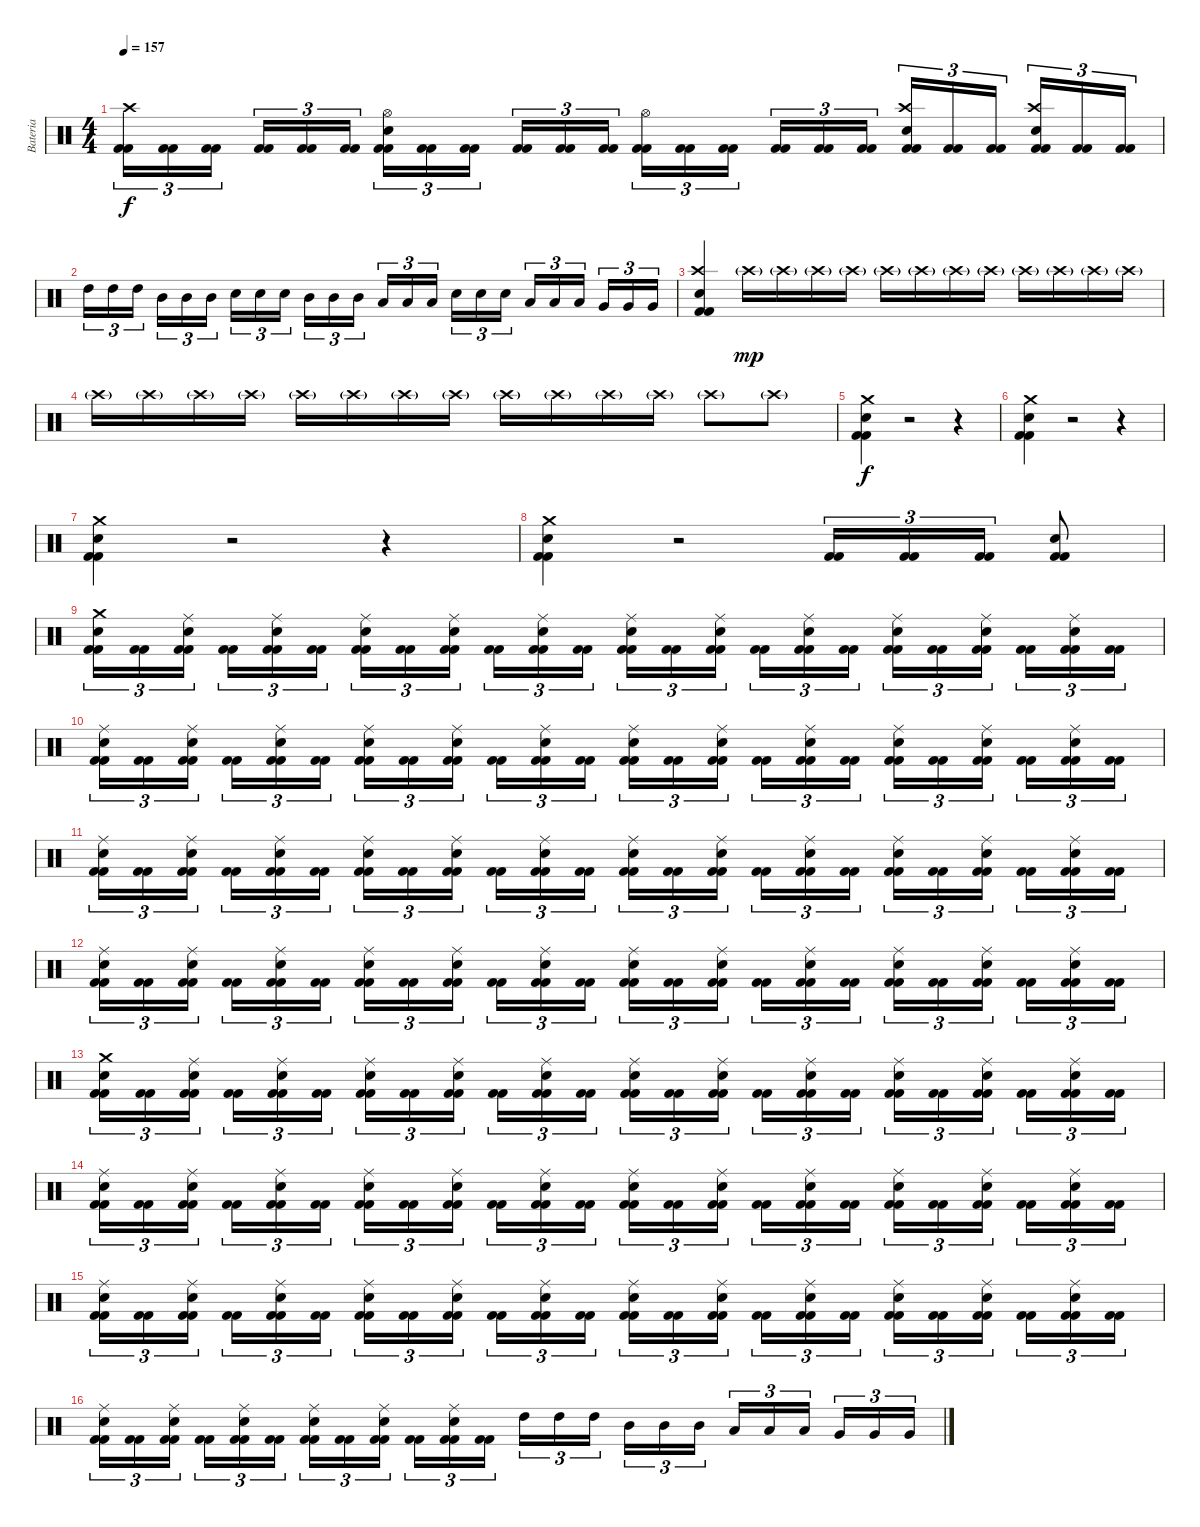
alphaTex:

\track ("Bateria" "Bateria") {instrument percussion}
\staff {score}
\articulation defaults
\ts (4 4)
\tempo 157
\clef neutral
\ks c
("Kick (hit) 2" "Kick (hit) 2" "Crash high (hit)").16{tu (3 2) dy f} ("Kick (hit) 2" "Kick (hit) 2").16{tu (3 2)} ("Kick (hit) 2" "Kick (hit) 2").16{tu (3 2)} ("Kick (hit) 2" "Kick (hit) 2").16{tu (3 2)} ("Kick (hit) 2" "Kick (hit) 2").16{tu (3 2)} ("Kick (hit) 2" "Kick (hit) 2").16{tu (3 2)} ("Kick (hit) 2" "Kick (hit) 2" "Snare (hit) 2" "Hi-Hat (open)").16{tu (3 2)} ("Kick (hit) 2" "Kick (hit) 2").16{tu (3 2)} ("Kick (hit) 2" "Kick (hit) 2").16{tu (3 2)} ("Kick (hit) 2" "Kick (hit) 2").16{tu (3 2)} ("Kick (hit) 2" "Kick (hit) 2").16{tu (3 2)} ("Kick (hit) 2" "Kick (hit) 2").16{tu (3 2)} ("Kick (hit) 2" "Kick (hit) 2" "Hi-Hat (open)").16{tu (3 2)} ("Kick (hit) 2" "Kick (hit) 2").16{tu (3 2)} ("Kick (hit) 2" "Kick (hit) 2").16{tu (3 2)} ("Kick (hit) 2" "Kick (hit) 2").16{tu (3 2)} ("Kick (hit) 2" "Kick (hit) 2").16{tu (3 2)} ("Kick (hit) 2" "Kick (hit) 2").16{tu (3 2)} ("Kick (hit) 2" "Kick (hit) 2" "Snare (hit) 2" "Crash high (hit)").16{tu (3 2)} ("Kick (hit) 2" "Kick (hit) 2").16{tu (3 2)} ("Kick (hit) 2" "Kick (hit) 2").16{tu (3 2)} ("Kick (hit) 2" "Kick (hit) 2" "Snare (hit) 2" "Crash high (hit)").16{tu (3 2)} ("Kick (hit) 2" "Kick (hit) 2").16{tu (3 2)} ("Kick (hit) 2" "Kick (hit) 2").16{tu (3 2)} |
"High Tom (hit)".16{tu (3 2)} "High Tom (hit)".16{tu (3 2)} "High Tom (hit)".16{tu (3 2)} "Mid Tom (hit)".16{tu (3 2)} "Mid Tom (hit)".16{tu (3 2)} "Mid Tom (hit)".16{tu (3 2)} "Snare (hit) 2".16{tu (3 2)} "Snare (hit) 2".16{tu (3 2)} "Snare (hit) 2".16{tu (3 2)} "Mid Tom (hit)".16{tu (3 2)} "Mid Tom (hit)".16{tu (3 2)} "Mid Tom (hit)".16{tu (3 2)} "Low Tom (hit)".16{tu (3 2)} "Low Tom (hit)".16{tu (3 2)} "Low Tom (hit)".16{tu (3 2)} "Snare (hit) 2".16{tu (3 2)} "Snare (hit) 2".16{tu (3 2)} "Snare (hit) 2".16{tu (3 2)} "Low Tom (hit)".16{tu (3 2)} "Low Tom (hit)".16{tu (3 2)} "Low Tom (hit)".16{tu (3 2)} "Very Low Tom (hit)".16{tu (3 2)} "Very Low Tom (hit)".16{tu (3 2)} "Very Low Tom (hit)".16{tu (3 2)} |
("Kick (hit) 2" "Kick (hit) 2" "Snare (hit) 2" "Crash high (hit)").4 "Crash high (hit)"{g}.16{dy mp} "Crash high (hit)"{g}.16 "Crash high (hit)"{g}.16 "Crash high (hit)"{g}.16 "Crash high (hit)"{g}.16 "Crash high (hit)"{g}.16 "Crash high (hit)"{g}.16 "Crash high (hit)"{g}.16 "Crash high (hit)"{g}.16 "Crash high (hit)"{g}.16 "Crash high (hit)"{g}.16 "Crash high (hit)"{g}.16 |
"Crash high (hit)"{g}.16 "Crash high (hit)"{g}.16 "Crash high (hit)"{g}.16 "Crash high (hit)"{g}.16 "Crash high (hit)"{g}.16 "Crash high (hit)"{g}.16 "Crash high (hit)"{g}.16 "Crash high (hit)"{g}.16 "Crash high (hit)"{g}.16 "Crash high (hit)"{g}.16 "Crash high (hit)"{g}.16 "Crash high (hit)"{g}.16 "Crash high (hit)"{g}.8 "Crash high (hit)"{g}.8 |
("Kick (hit) 2" "Kick (hit) 2" "Snare (hit) 2" "Crash medium (hit)").4{dy f} r.2 r.4 |
("Kick (hit) 2" "Kick (hit) 2" "Snare (hit) 2" "Crash medium (hit)").4 r.2 r.4 |
("Kick (hit) 2" "Kick (hit) 2" "Snare (hit) 2" "Crash medium (hit)").4 r.2 r.4 |
("Kick (hit) 2" "Kick (hit) 2" "Snare (hit) 2" "Crash medium (hit)").4 r.2 ("Kick (hit) 2" "Kick (hit) 2").16{tu (3 2)} ("Kick (hit) 2" "Kick (hit) 2").16{tu (3 2)} ("Kick (hit) 2" "Kick (hit) 2").16{tu (3 2)} ("Kick (hit) 2" "Kick (hit) 2" "Snare (hit) 2").8 |
("Kick (hit) 2" "Kick (hit) 2" "Snare (hit) 2" "Crash medium (hit)").16{tu (3 2)} ("Kick (hit) 2" "Kick (hit) 2").16{tu (3 2)} ("Kick (hit) 2" "Kick (hit) 2" "Snare (hit) 2" "Ride (middle)").16{tu (3 2)} ("Kick (hit) 2" "Kick (hit) 2").16{tu (3 2)} ("Kick (hit) 2" "Kick (hit) 2" "Snare (hit) 2" "Ride (middle)").16{tu (3 2)} ("Kick (hit) 2" "Kick (hit) 2").16{tu (3 2)} ("Kick (hit) 2" "Kick (hit) 2" "Snare (hit) 2" "Ride (middle)").16{tu (3 2)} ("Kick (hit) 2" "Kick (hit) 2").16{tu (3 2)} ("Kick (hit) 2" "Kick (hit) 2" "Snare (hit) 2" "Ride (middle)").16{tu (3 2)} ("Kick (hit) 2" "Kick (hit) 2").16{tu (3 2)} ("Kick (hit) 2" "Kick (hit) 2" "Snare (hit) 2" "Ride (middle)").16{tu (3 2)} ("Kick (hit) 2" "Kick (hit) 2").16{tu (3 2)} ("Kick (hit) 2" "Kick (hit) 2" "Snare (hit) 2" "Ride (middle)").16{tu (3 2)} ("Kick (hit) 2" "Kick (hit) 2").16{tu (3 2)} ("Kick (hit) 2" "Kick (hit) 2" "Snare (hit) 2" "Ride (middle)").16{tu (3 2)} ("Kick (hit) 2" "Kick (hit) 2").16{tu (3 2)} ("Kick (hit) 2" "Kick (hit) 2" "Snare (hit) 2" "Ride (middle)").16{tu (3 2)} ("Kick (hit) 2" "Kick (hit) 2").16{tu (3 2)} ("Kick (hit) 2" "Kick (hit) 2" "Snare (hit) 2" "Ride (middle)").16{tu (3 2)} ("Kick (hit) 2" "Kick (hit) 2").16{tu (3 2)} ("Kick (hit) 2" "Kick (hit) 2" "Snare (hit) 2" "Ride (middle)").16{tu (3 2)} ("Kick (hit) 2" "Kick (hit) 2").16{tu (3 2)} ("Kick (hit) 2" "Kick (hit) 2" "Snare (hit) 2" "Ride (middle)").16{tu (3 2)} ("Kick (hit) 2" "Kick (hit) 2").16{tu (3 2)} |
("Kick (hit) 2" "Kick (hit) 2" "Snare (hit) 2" "Ride (middle)").16{tu (3 2)} ("Kick (hit) 2" "Kick (hit) 2").16{tu (3 2)} ("Kick (hit) 2" "Kick (hit) 2" "Snare (hit) 2" "Ride (middle)").16{tu (3 2)} ("Kick (hit) 2" "Kick (hit) 2").16{tu (3 2)} ("Kick (hit) 2" "Kick (hit) 2" "Snare (hit) 2" "Ride (middle)").16{tu (3 2)} ("Kick (hit) 2" "Kick (hit) 2").16{tu (3 2)} ("Kick (hit) 2" "Kick (hit) 2" "Snare (hit) 2" "Ride (middle)").16{tu (3 2)} ("Kick (hit) 2" "Kick (hit) 2").16{tu (3 2)} ("Kick (hit) 2" "Kick (hit) 2" "Snare (hit) 2" "Ride (middle)").16{tu (3 2)} ("Kick (hit) 2" "Kick (hit) 2").16{tu (3 2)} ("Kick (hit) 2" "Kick (hit) 2" "Snare (hit) 2" "Ride (middle)").16{tu (3 2)} ("Kick (hit) 2" "Kick (hit) 2").16{tu (3 2)} ("Kick (hit) 2" "Kick (hit) 2" "Snare (hit) 2" "Ride (middle)").16{tu (3 2)} ("Kick (hit) 2" "Kick (hit) 2").16{tu (3 2)} ("Kick (hit) 2" "Kick (hit) 2" "Snare (hit) 2" "Ride (middle)").16{tu (3 2)} ("Kick (hit) 2" "Kick (hit) 2").16{tu (3 2)} ("Kick (hit) 2" "Kick (hit) 2" "Snare (hit) 2" "Ride (middle)").16{tu (3 2)} ("Kick (hit) 2" "Kick (hit) 2").16{tu (3 2)} ("Kick (hit) 2" "Kick (hit) 2" "Snare (hit) 2" "Ride (middle)").16{tu (3 2)} ("Kick (hit) 2" "Kick (hit) 2").16{tu (3 2)} ("Kick (hit) 2" "Kick (hit) 2" "Snare (hit) 2" "Ride (middle)").16{tu (3 2)} ("Kick (hit) 2" "Kick (hit) 2").16{tu (3 2)} ("Kick (hit) 2" "Kick (hit) 2" "Snare (hit) 2" "Ride (middle)").16{tu (3 2)} ("Kick (hit) 2" "Kick (hit) 2").16{tu (3 2)} |
("Kick (hit) 2" "Kick (hit) 2" "Snare (hit) 2" "Ride (middle)").16{tu (3 2)} ("Kick (hit) 2" "Kick (hit) 2").16{tu (3 2)} ("Kick (hit) 2" "Kick (hit) 2" "Snare (hit) 2" "Ride (middle)").16{tu (3 2)} ("Kick (hit) 2" "Kick (hit) 2").16{tu (3 2)} ("Kick (hit) 2" "Kick (hit) 2" "Snare (hit) 2" "Ride (middle)").16{tu (3 2)} ("Kick (hit) 2" "Kick (hit) 2").16{tu (3 2)} ("Kick (hit) 2" "Kick (hit) 2" "Snare (hit) 2" "Ride (middle)").16{tu (3 2)} ("Kick (hit) 2" "Kick (hit) 2").16{tu (3 2)} ("Kick (hit) 2" "Kick (hit) 2" "Snare (hit) 2" "Ride (middle)").16{tu (3 2)} ("Kick (hit) 2" "Kick (hit) 2").16{tu (3 2)} ("Kick (hit) 2" "Kick (hit) 2" "Snare (hit) 2" "Ride (middle)").16{tu (3 2)} ("Kick (hit) 2" "Kick (hit) 2").16{tu (3 2)} ("Kick (hit) 2" "Kick (hit) 2" "Snare (hit) 2" "Ride (middle)").16{tu (3 2)} ("Kick (hit) 2" "Kick (hit) 2").16{tu (3 2)} ("Kick (hit) 2" "Kick (hit) 2" "Snare (hit) 2" "Ride (middle)").16{tu (3 2)} ("Kick (hit) 2" "Kick (hit) 2").16{tu (3 2)} ("Kick (hit) 2" "Kick (hit) 2" "Snare (hit) 2" "Ride (middle)").16{tu (3 2)} ("Kick (hit) 2" "Kick (hit) 2").16{tu (3 2)} ("Kick (hit) 2" "Kick (hit) 2" "Snare (hit) 2" "Ride (middle)").16{tu (3 2)} ("Kick (hit) 2" "Kick (hit) 2").16{tu (3 2)} ("Kick (hit) 2" "Kick (hit) 2" "Snare (hit) 2" "Ride (middle)").16{tu (3 2)} ("Kick (hit) 2" "Kick (hit) 2").16{tu (3 2)} ("Kick (hit) 2" "Kick (hit) 2" "Snare (hit) 2" "Ride (middle)").16{tu (3 2)} ("Kick (hit) 2" "Kick (hit) 2").16{tu (3 2)} |
("Kick (hit) 2" "Kick (hit) 2" "Snare (hit) 2" "Ride (middle)").16{tu (3 2)} ("Kick (hit) 2" "Kick (hit) 2").16{tu (3 2)} ("Kick (hit) 2" "Kick (hit) 2" "Snare (hit) 2" "Ride (middle)").16{tu (3 2)} ("Kick (hit) 2" "Kick (hit) 2").16{tu (3 2)} ("Kick (hit) 2" "Kick (hit) 2" "Snare (hit) 2" "Ride (middle)").16{tu (3 2)} ("Kick (hit) 2" "Kick (hit) 2").16{tu (3 2)} ("Kick (hit) 2" "Kick (hit) 2" "Snare (hit) 2" "Ride (middle)").16{tu (3 2)} ("Kick (hit) 2" "Kick (hit) 2").16{tu (3 2)} ("Kick (hit) 2" "Kick (hit) 2" "Snare (hit) 2" "Ride (middle)").16{tu (3 2)} ("Kick (hit) 2" "Kick (hit) 2").16{tu (3 2)} ("Kick (hit) 2" "Kick (hit) 2" "Snare (hit) 2" "Ride (middle)").16{tu (3 2)} ("Kick (hit) 2" "Kick (hit) 2").16{tu (3 2)} ("Kick (hit) 2" "Kick (hit) 2" "Snare (hit) 2" "Ride (middle)").16{tu (3 2)} ("Kick (hit) 2" "Kick (hit) 2").16{tu (3 2)} ("Kick (hit) 2" "Kick (hit) 2" "Snare (hit) 2" "Ride (middle)").16{tu (3 2)} ("Kick (hit) 2" "Kick (hit) 2").16{tu (3 2)} ("Kick (hit) 2" "Kick (hit) 2" "Snare (hit) 2" "Ride (middle)").16{tu (3 2)} ("Kick (hit) 2" "Kick (hit) 2").16{tu (3 2)} ("Kick (hit) 2" "Kick (hit) 2" "Snare (hit) 2" "Ride (middle)").16{tu (3 2)} ("Kick (hit) 2" "Kick (hit) 2").16{tu (3 2)} ("Kick (hit) 2" "Kick (hit) 2" "Snare (hit) 2" "Ride (middle)").16{tu (3 2)} ("Kick (hit) 2" "Kick (hit) 2").16{tu (3 2)} ("Kick (hit) 2" "Kick (hit) 2" "Snare (hit) 2" "Ride (middle)").16{tu (3 2)} ("Kick (hit) 2" "Kick (hit) 2").16{tu (3 2)} |
("Kick (hit) 2" "Kick (hit) 2" "Snare (hit) 2" "Crash medium (hit)").16{tu (3 2)} ("Kick (hit) 2" "Kick (hit) 2").16{tu (3 2)} ("Kick (hit) 2" "Kick (hit) 2" "Snare (hit) 2" "Ride (middle)").16{tu (3 2)} ("Kick (hit) 2" "Kick (hit) 2").16{tu (3 2)} ("Kick (hit) 2" "Kick (hit) 2" "Snare (hit) 2" "Ride (middle)").16{tu (3 2)} ("Kick (hit) 2" "Kick (hit) 2").16{tu (3 2)} ("Kick (hit) 2" "Kick (hit) 2" "Snare (hit) 2" "Ride (middle)").16{tu (3 2)} ("Kick (hit) 2" "Kick (hit) 2").16{tu (3 2)} ("Kick (hit) 2" "Kick (hit) 2" "Snare (hit) 2" "Ride (middle)").16{tu (3 2)} ("Kick (hit) 2" "Kick (hit) 2").16{tu (3 2)} ("Kick (hit) 2" "Kick (hit) 2" "Snare (hit) 2" "Ride (middle)").16{tu (3 2)} ("Kick (hit) 2" "Kick (hit) 2").16{tu (3 2)} ("Kick (hit) 2" "Kick (hit) 2" "Snare (hit) 2" "Ride (middle)").16{tu (3 2)} ("Kick (hit) 2" "Kick (hit) 2").16{tu (3 2)} ("Kick (hit) 2" "Kick (hit) 2" "Snare (hit) 2" "Ride (middle)").16{tu (3 2)} ("Kick (hit) 2" "Kick (hit) 2").16{tu (3 2)} ("Kick (hit) 2" "Kick (hit) 2" "Snare (hit) 2" "Ride (middle)").16{tu (3 2)} ("Kick (hit) 2" "Kick (hit) 2").16{tu (3 2)} ("Kick (hit) 2" "Kick (hit) 2" "Snare (hit) 2" "Ride (middle)").16{tu (3 2)} ("Kick (hit) 2" "Kick (hit) 2").16{tu (3 2)} ("Kick (hit) 2" "Kick (hit) 2" "Snare (hit) 2" "Ride (middle)").16{tu (3 2)} ("Kick (hit) 2" "Kick (hit) 2").16{tu (3 2)} ("Kick (hit) 2" "Kick (hit) 2" "Snare (hit) 2" "Ride (middle)").16{tu (3 2)} ("Kick (hit) 2" "Kick (hit) 2").16{tu (3 2)} |
("Kick (hit) 2" "Kick (hit) 2" "Snare (hit) 2" "Ride (middle)").16{tu (3 2)} ("Kick (hit) 2" "Kick (hit) 2").16{tu (3 2)} ("Kick (hit) 2" "Kick (hit) 2" "Snare (hit) 2" "Ride (middle)").16{tu (3 2)} ("Kick (hit) 2" "Kick (hit) 2").16{tu (3 2)} ("Kick (hit) 2" "Kick (hit) 2" "Snare (hit) 2" "Ride (middle)").16{tu (3 2)} ("Kick (hit) 2" "Kick (hit) 2").16{tu (3 2)} ("Kick (hit) 2" "Kick (hit) 2" "Snare (hit) 2" "Ride (middle)").16{tu (3 2)} ("Kick (hit) 2" "Kick (hit) 2").16{tu (3 2)} ("Kick (hit) 2" "Kick (hit) 2" "Snare (hit) 2" "Ride (middle)").16{tu (3 2)} ("Kick (hit) 2" "Kick (hit) 2").16{tu (3 2)} ("Kick (hit) 2" "Kick (hit) 2" "Snare (hit) 2" "Ride (middle)").16{tu (3 2)} ("Kick (hit) 2" "Kick (hit) 2").16{tu (3 2)} ("Kick (hit) 2" "Kick (hit) 2" "Snare (hit) 2" "Ride (middle)").16{tu (3 2)} ("Kick (hit) 2" "Kick (hit) 2").16{tu (3 2)} ("Kick (hit) 2" "Kick (hit) 2" "Snare (hit) 2" "Ride (middle)").16{tu (3 2)} ("Kick (hit) 2" "Kick (hit) 2").16{tu (3 2)} ("Kick (hit) 2" "Kick (hit) 2" "Snare (hit) 2" "Ride (middle)").16{tu (3 2)} ("Kick (hit) 2" "Kick (hit) 2").16{tu (3 2)} ("Kick (hit) 2" "Kick (hit) 2" "Snare (hit) 2" "Ride (middle)").16{tu (3 2)} ("Kick (hit) 2" "Kick (hit) 2").16{tu (3 2)} ("Kick (hit) 2" "Kick (hit) 2" "Snare (hit) 2" "Ride (middle)").16{tu (3 2)} ("Kick (hit) 2" "Kick (hit) 2").16{tu (3 2)} ("Kick (hit) 2" "Kick (hit) 2" "Snare (hit) 2" "Ride (middle)").16{tu (3 2)} ("Kick (hit) 2" "Kick (hit) 2").16{tu (3 2)} |
("Kick (hit) 2" "Kick (hit) 2" "Snare (hit) 2" "Ride (middle)").16{tu (3 2)} ("Kick (hit) 2" "Kick (hit) 2").16{tu (3 2)} ("Kick (hit) 2" "Kick (hit) 2" "Snare (hit) 2" "Ride (middle)").16{tu (3 2)} ("Kick (hit) 2" "Kick (hit) 2").16{tu (3 2)} ("Kick (hit) 2" "Kick (hit) 2" "Snare (hit) 2" "Ride (middle)").16{tu (3 2)} ("Kick (hit) 2" "Kick (hit) 2").16{tu (3 2)} ("Kick (hit) 2" "Kick (hit) 2" "Snare (hit) 2" "Ride (middle)").16{tu (3 2)} ("Kick (hit) 2" "Kick (hit) 2").16{tu (3 2)} ("Kick (hit) 2" "Kick (hit) 2" "Snare (hit) 2" "Ride (middle)").16{tu (3 2)} ("Kick (hit) 2" "Kick (hit) 2").16{tu (3 2)} ("Kick (hit) 2" "Kick (hit) 2" "Snare (hit) 2" "Ride (middle)").16{tu (3 2)} ("Kick (hit) 2" "Kick (hit) 2").16{tu (3 2)} ("Kick (hit) 2" "Kick (hit) 2" "Snare (hit) 2" "Ride (middle)").16{tu (3 2)} ("Kick (hit) 2" "Kick (hit) 2").16{tu (3 2)} ("Kick (hit) 2" "Kick (hit) 2" "Snare (hit) 2" "Ride (middle)").16{tu (3 2)} ("Kick (hit) 2" "Kick (hit) 2").16{tu (3 2)} ("Kick (hit) 2" "Kick (hit) 2" "Snare (hit) 2" "Ride (middle)").16{tu (3 2)} ("Kick (hit) 2" "Kick (hit) 2").16{tu (3 2)} ("Kick (hit) 2" "Kick (hit) 2" "Snare (hit) 2" "Ride (middle)").16{tu (3 2)} ("Kick (hit) 2" "Kick (hit) 2").16{tu (3 2)} ("Kick (hit) 2" "Kick (hit) 2" "Snare (hit) 2" "Ride (middle)").16{tu (3 2)} ("Kick (hit) 2" "Kick (hit) 2").16{tu (3 2)} ("Kick (hit) 2" "Kick (hit) 2" "Snare (hit) 2" "Ride (middle)").16{tu (3 2)} ("Kick (hit) 2" "Kick (hit) 2").16{tu (3 2)} |
("Kick (hit) 2" "Kick (hit) 2" "Snare (hit) 2" "Ride (middle)").16{tu (3 2)} ("Kick (hit) 2" "Kick (hit) 2").16{tu (3 2)} ("Kick (hit) 2" "Kick (hit) 2" "Snare (hit) 2" "Ride (middle)").16{tu (3 2)} ("Kick (hit) 2" "Kick (hit) 2").16{tu (3 2)} ("Kick (hit) 2" "Kick (hit) 2" "Snare (hit) 2" "Ride (middle)").16{tu (3 2)} ("Kick (hit) 2" "Kick (hit) 2").16{tu (3 2)} ("Kick (hit) 2" "Kick (hit) 2" "Snare (hit) 2" "Ride (middle)").16{tu (3 2)} ("Kick (hit) 2" "Kick (hit) 2").16{tu (3 2)} ("Kick (hit) 2" "Kick (hit) 2" "Snare (hit) 2" "Ride (middle)").16{tu (3 2)} ("Kick (hit) 2" "Kick (hit) 2").16{tu (3 2)} ("Kick (hit) 2" "Kick (hit) 2" "Snare (hit) 2" "Ride (middle)").16{tu (3 2)} ("Kick (hit) 2" "Kick (hit) 2").16{tu (3 2)} "High Tom (hit)".16{tu (3 2)} "High Tom (hit)".16{tu (3 2)} "High Tom (hit)".16{tu (3 2)} "Mid Tom (hit)".16{tu (3 2)} "Mid Tom (hit)".16{tu (3 2)} "Mid Tom (hit)".16{tu (3 2)} "Low Tom (hit)".16{tu (3 2)} "Low Tom (hit)".16{tu (3 2)} "Low Tom (hit)".16{tu (3 2)} "Very Low Tom (hit)".16{tu (3 2)} "Very Low Tom (hit)".16{tu (3 2)} "Very Low Tom (hit)".16{tu (3 2)}
